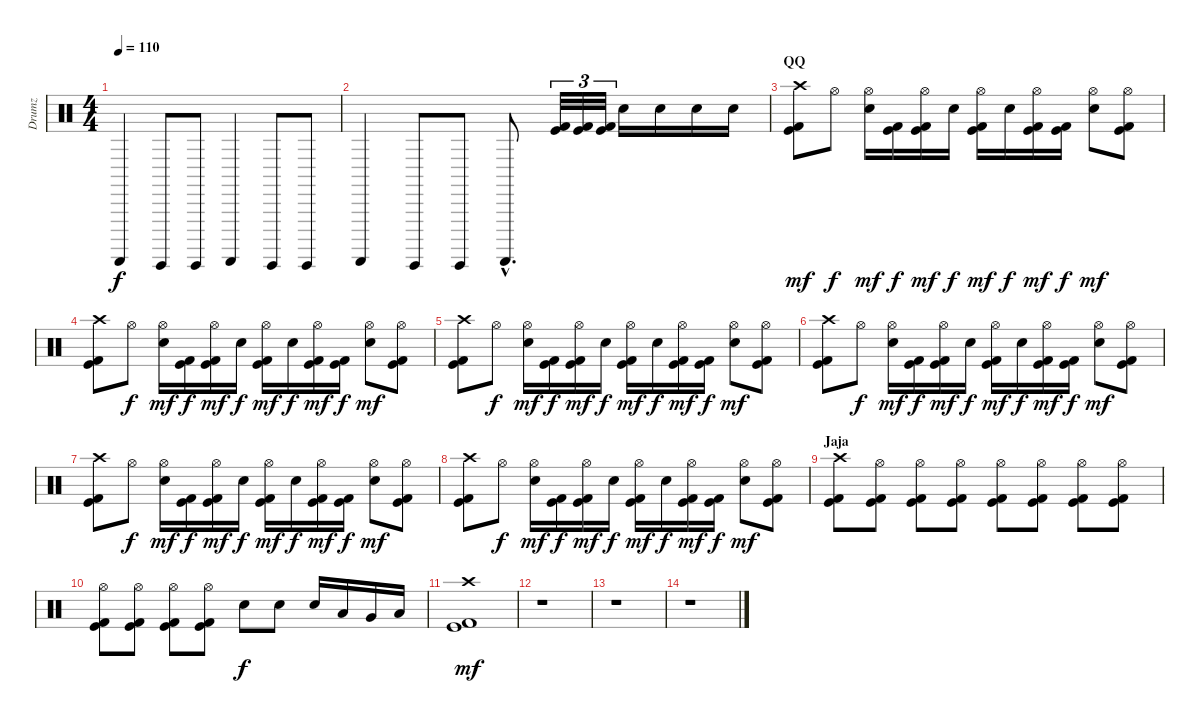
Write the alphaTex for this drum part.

\track ("Drumz" "Drumz") {instrument percussion}
\staff {score}
\articulation defaults
\ts (4 4)
\tempo 110
\clef neutral
\ks c "Guiro (scrap-return)".4{dy f} "Guiro (hit)".8 "Guiro (hit)".8 "Guiro (scrap-return)".4 "Guiro (hit)".8 "Guiro (hit)".8
|
"Guiro (scrap-return)".4 "Guiro (hit)".8 "Guiro (hit)".8 "Guiro (scrap-return)"{hac}.8{d} ("Kick (hit) 2" "Kick (hit)").32{tu (3 2)} ("Kick (hit)" "Kick (hit) 2").32{tu (3 2)} ("Kick (hit) 2" "Kick (hit)").32{tu (3 2)} "Snare (hit) 2".16 "Snare (hit) 2".16 "Snare (hit) 2".16 "Snare (hit) 2".16 |
\section ("" "QQ")
("Kick (hit) 2" "Kick (hit)" "Crash high (hit)").8{dy mf} "Hi-Hat (open)".8{dy f} ("Snare (hit) 2" "Hi-Hat (open)").16{dy mf} ("Kick (hit) 2" "Kick (hit)").16{dy f} ("Kick (hit) 2" "Hi-Hat (open)" "Kick (hit)").16{dy mf} "Snare (hit) 2".16{dy f} ("Kick (hit) 2" "Hi-Hat (open)" "Kick (hit)").16{dy mf} "Snare (hit) 2".16{dy f} ("Kick (hit) 2" "Hi-Hat (open)" "Kick (hit)").16{dy mf} ("Kick (hit)" "Kick (hit) 2").16{dy f} ("Snare (hit) 2" "Hi-Hat (open)").8{dy mf} ("Kick (hit) 2" "Hi-Hat (open)" "Kick (hit)").8 |
("Kick (hit) 2" "Kick (hit)" "Crash high (hit)").8 "Hi-Hat (open)".8{dy f} ("Snare (hit) 2" "Hi-Hat (open)").16{dy mf} ("Kick (hit) 2" "Kick (hit)").16{dy f} ("Kick (hit) 2" "Hi-Hat (open)" "Kick (hit)").16{dy mf} "Snare (hit) 2".16{dy f} ("Kick (hit) 2" "Hi-Hat (open)" "Kick (hit)").16{dy mf} "Snare (hit) 2".16{dy f} ("Kick (hit) 2" "Hi-Hat (open)" "Kick (hit)").16{dy mf} ("Kick (hit)" "Kick (hit) 2").16{dy f} ("Snare (hit) 2" "Hi-Hat (open)").8{dy mf} ("Kick (hit) 2" "Hi-Hat (open)" "Kick (hit)").8 |
("Kick (hit) 2" "Kick (hit)" "Crash high (hit)").8 "Hi-Hat (open)".8{dy f} ("Snare (hit) 2" "Hi-Hat (open)").16{dy mf} ("Kick (hit) 2" "Kick (hit)").16{dy f} ("Kick (hit) 2" "Hi-Hat (open)" "Kick (hit)").16{dy mf} "Snare (hit) 2".16{dy f} ("Kick (hit) 2" "Hi-Hat (open)" "Kick (hit)").16{dy mf} "Snare (hit) 2".16{dy f} ("Kick (hit) 2" "Hi-Hat (open)" "Kick (hit)").16{dy mf} ("Kick (hit)" "Kick (hit) 2").16{dy f} ("Snare (hit) 2" "Hi-Hat (open)").8{dy mf} ("Kick (hit) 2" "Hi-Hat (open)" "Kick (hit)").8 |
("Kick (hit) 2" "Kick (hit)" "Crash high (hit)").8 "Hi-Hat (open)".8{dy f} ("Snare (hit) 2" "Hi-Hat (open)").16{dy mf} ("Kick (hit) 2" "Kick (hit)").16{dy f} ("Kick (hit) 2" "Hi-Hat (open)" "Kick (hit)").16{dy mf} "Snare (hit) 2".16{dy f} ("Kick (hit) 2" "Hi-Hat (open)" "Kick (hit)").16{dy mf} "Snare (hit) 2".16{dy f} ("Kick (hit) 2" "Hi-Hat (open)" "Kick (hit)").16{dy mf} ("Kick (hit)" "Kick (hit) 2").16{dy f} ("Snare (hit) 2" "Hi-Hat (open)").8{dy mf} ("Kick (hit) 2" "Hi-Hat (open)" "Kick (hit)").8 |
("Kick (hit) 2" "Kick (hit)" "Crash high (hit)").8 "Hi-Hat (open)".8{dy f} ("Snare (hit) 2" "Hi-Hat (open)").16{dy mf} ("Kick (hit) 2" "Kick (hit)").16{dy f} ("Kick (hit) 2" "Hi-Hat (open)" "Kick (hit)").16{dy mf} "Snare (hit) 2".16{dy f} ("Kick (hit) 2" "Hi-Hat (open)" "Kick (hit)").16{dy mf} "Snare (hit) 2".16{dy f} ("Kick (hit) 2" "Hi-Hat (open)" "Kick (hit)").16{dy mf} ("Kick (hit)" "Kick (hit) 2").16{dy f} ("Snare (hit) 2" "Hi-Hat (open)").8{dy mf} ("Kick (hit) 2" "Hi-Hat (open)" "Kick (hit)").8 |
("Kick (hit) 2" "Kick (hit)" "Crash high (hit)").8 "Hi-Hat (open)".8{dy f} ("Snare (hit) 2" "Hi-Hat (open)").16{dy mf} ("Kick (hit) 2" "Kick (hit)").16{dy f} ("Kick (hit) 2" "Hi-Hat (open)" "Kick (hit)").16{dy mf} "Snare (hit) 2".16{dy f} ("Kick (hit) 2" "Hi-Hat (open)" "Kick (hit)").16{dy mf} "Snare (hit) 2".16{dy f} ("Kick (hit) 2" "Hi-Hat (open)" "Kick (hit)").16{dy mf} ("Kick (hit)" "Kick (hit) 2").16{dy f} ("Snare (hit) 2" "Hi-Hat (open)").8{dy mf} ("Kick (hit) 2" "Hi-Hat (open)" "Kick (hit)").8 |
\section ("" "Jaja")
("Kick (hit) 2" "Kick (hit)" "Crash high (hit)").8 ("Kick (hit) 2" "Kick (hit)" "Hi-Hat (open)").8{volume 8} ("Kick (hit) 2" "Kick (hit)" "Hi-Hat (open)").8{volume 16} ("Kick (hit) 2" "Kick (hit)" "Hi-Hat (open)").8 ("Kick (hit) 2" "Kick (hit)" "Hi-Hat (open)").8 ("Kick (hit) 2" "Kick (hit)" "Hi-Hat (open)").8 ("Kick (hit) 2" "Kick (hit)" "Hi-Hat (open)").8 ("Kick (hit) 2" "Kick (hit)" "Hi-Hat (open)").8 |
("Kick (hit) 2" "Kick (hit)" "Hi-Hat (open)").8 ("Kick (hit) 2" "Kick (hit)" "Hi-Hat (open)").8 ("Kick (hit) 2" "Kick (hit)" "Hi-Hat (open)").8 ("Kick (hit) 2" "Kick (hit)" "Hi-Hat (open)").8 "Snare (hit) 2".8{dy f} "Snare (hit) 2".8 "Snare (hit) 2".16 "Low Tom (hit)".16 "Very Low Tom (hit)".16 "Low Floor Tom (hit)".16 |
("Kick (hit) 2" "Kick (hit)" "Crash high (hit)").1{dy mf} |
r.1 |
r.1 |
r.1
